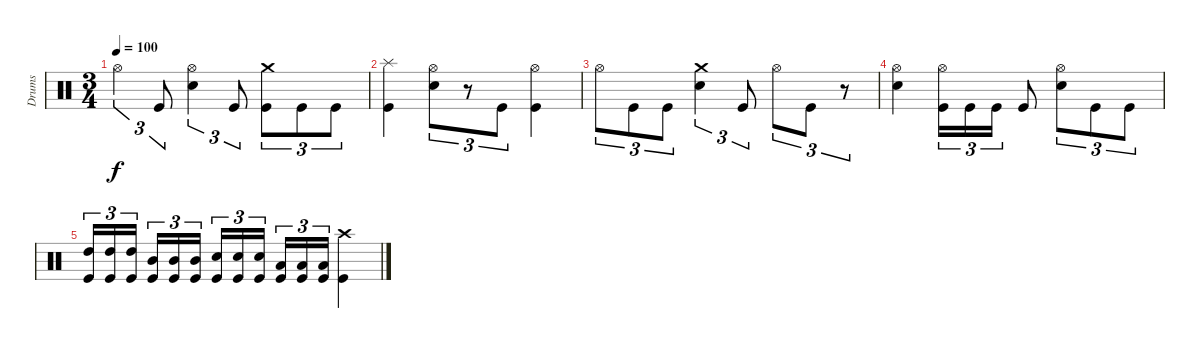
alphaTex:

\track ("Drums" "Drums") {instrument percussion}
\staff {score}
\articulation defaults
\ts (3 4)
\tempo 100
\clef neutral
\ks c "Hi-Hat (open)".4{tu (3 2) dy f} "Kick (hit)".8{tu (3 2)}
("Hi-Hat (open)" "Electric Snare (hit)").4{tu (3 2)} "Kick (hit)".8{tu (3 2)} ("Crash medium (hit)" "Kick (hit)").8{tu (3 2)} "Kick (hit)".8{tu (3 2)} "Kick (hit)".8{tu (3 2)} |
("Splash (hit)" "Kick (hit)").4 ("Hi-Hat (open)" "Electric Snare (hit)").8{tu (3 2)} r.8{tu (3 2)} "Kick (hit)".8{tu (3 2)} ("Hi-Hat (open)" "Kick (hit)").4 |
"Hi-Hat (open)".8{tu (3 2)} "Kick (hit)".8{tu (3 2)} "Kick (hit)".8{tu (3 2)} ("Crash medium (hit)" "Electric Snare (hit)").4{tu (3 2)} "Kick (hit)".8{tu (3 2)} "Hi-Hat (open)".8{tu (3 2)} "Kick (hit)".8{tu (3 2)} r.8{tu (3 2)} |
("Hi-Hat (open)" "Electric Snare (hit)").4 ("Hi-Hat (open)" "Kick (hit)").16{tu (3 2)} "Kick (hit)".16{tu (3 2)} "Kick (hit)".16{tu (3 2)} "Kick (hit)".8 ("Hi-Hat (open)" "Electric Snare (hit)").8{tu (3 2)} "Kick (hit)".8{tu (3 2)} "Kick (hit)".8{tu (3 2)} |
("High Tom (hit)" "Kick (hit)").16{tu (3 2)} ("High Tom (hit)" "Kick (hit)").16{tu (3 2)} ("High Tom (hit)" "Kick (hit)").16{tu (3 2)} ("Mid Tom (hit)" "Kick (hit)").16{tu (3 2)} ("Mid Tom (hit)" "Kick (hit)").16{tu (3 2)} ("Mid Tom (hit)" "Kick (hit)").16{tu (3 2)} ("Electric Snare (hit)" "Kick (hit)").16{tu (3 2)} ("Electric Snare (hit)" "Kick (hit)").16{tu (3 2)} ("Electric Snare (hit)" "Kick (hit)").16{tu (3 2)} ("Low Tom (hit)" "Kick (hit)").16{tu (3 2)} ("Low Tom (hit)" "Kick (hit)").16{tu (3 2)} ("Low Tom (hit)" "Kick (hit)").16{tu (3 2)} ("Crash high (hit)" "Kick (hit)").4
